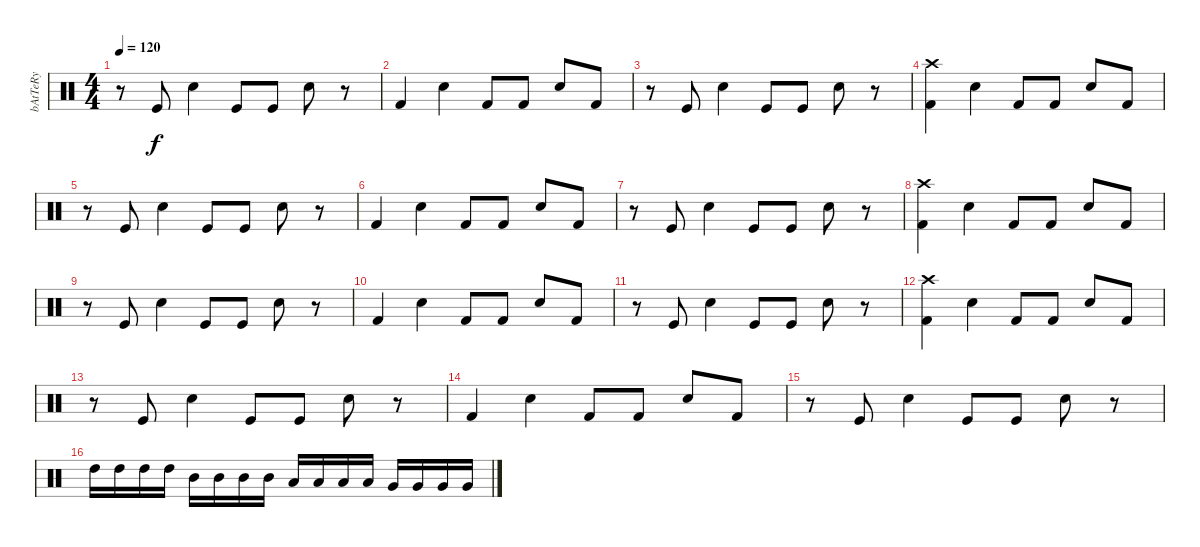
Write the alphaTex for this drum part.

\track ("bAtTeRy" "bAtTeRy") {instrument percussion}
\staff {score}
\articulation defaults
\ts (4 4)
\tempo 120
\clef neutral
\ks c
r.8{dy f} "Kick (hit)".8 "Electric Snare (hit)".4 "Kick (hit)".8 "Kick (hit)".8 "Electric Snare (hit)".8 r.8 |
"Kick (hit) 2".4 "Electric Snare (hit)".4 "Kick (hit) 2".8 "Kick (hit) 2".8 "Electric Snare (hit)".8 "Kick (hit) 2".8 |
r.8 "Kick (hit)".8 "Electric Snare (hit)".4 "Kick (hit)".8 "Kick (hit)".8 "Electric Snare (hit)".8 r.8 |
("Crash high (hit)" "Kick (hit) 2").4 "Electric Snare (hit)".4 "Kick (hit) 2".8 "Kick (hit) 2".8 "Electric Snare (hit)".8 "Kick (hit) 2".8 |
r.8 "Kick (hit)".8 "Electric Snare (hit)".4 "Kick (hit)".8 "Kick (hit)".8 "Electric Snare (hit)".8 r.8 |
"Kick (hit) 2".4 "Electric Snare (hit)".4 "Kick (hit) 2".8 "Kick (hit) 2".8 "Electric Snare (hit)".8 "Kick (hit) 2".8 |
r.8 "Kick (hit)".8 "Electric Snare (hit)".4 "Kick (hit)".8 "Kick (hit)".8 "Electric Snare (hit)".8 r.8 |
("Crash high (hit)" "Kick (hit) 2").4 "Electric Snare (hit)".4 "Kick (hit) 2".8 "Kick (hit) 2".8 "Electric Snare (hit)".8 "Kick (hit) 2".8 |
r.8 "Kick (hit)".8 "Electric Snare (hit)".4 "Kick (hit)".8 "Kick (hit)".8 "Electric Snare (hit)".8 r.8 |
"Kick (hit) 2".4 "Electric Snare (hit)".4 "Kick (hit) 2".8 "Kick (hit) 2".8 "Electric Snare (hit)".8 "Kick (hit) 2".8 |
r.8 "Kick (hit)".8 "Electric Snare (hit)".4 "Kick (hit)".8 "Kick (hit)".8 "Electric Snare (hit)".8 r.8 |
("Crash high (hit)" "Kick (hit) 2").4 "Electric Snare (hit)".4 "Kick (hit) 2".8 "Kick (hit) 2".8 "Electric Snare (hit)".8 "Kick (hit) 2".8 |
r.8 "Kick (hit)".8 "Electric Snare (hit)".4 "Kick (hit)".8 "Kick (hit)".8 "Electric Snare (hit)".8 r.8 |
"Kick (hit) 2".4 "Electric Snare (hit)".4 "Kick (hit) 2".8 "Kick (hit) 2".8 "Electric Snare (hit)".8 "Kick (hit) 2".8 |
r.8 "Kick (hit)".8 "Electric Snare (hit)".4 "Kick (hit)".8 "Kick (hit)".8 "Electric Snare (hit)".8 r.8 |
"High Tom (hit)".16 "High Tom (hit)".16 "High Tom (hit)".16 "High Tom (hit)".16 "Mid Tom (hit)".16 "Mid Tom (hit)".16 "Mid Tom (hit)".16 "Mid Tom (hit)".16 "Low Tom (hit)".16 "Low Tom (hit)".16 "Low Tom (hit)".16 "Low Tom (hit)".16 "Very Low Tom (hit)".16 "Very Low Tom (hit)".16 "Very Low Tom (hit)".16 "Very Low Tom (hit)".16
